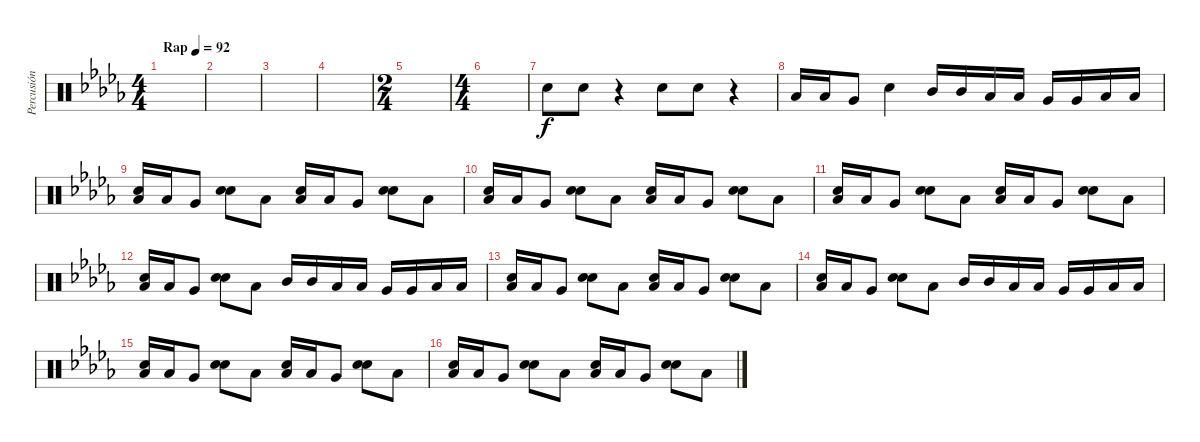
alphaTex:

\track ("Percusión" "Percusión") {instrument percussion}
\staff {score}
\articulation defaults
\ts (4 4)
\tempo (92 "Rap")
\clef neutral
\ks db
|
|
|
|
\ts (2 4)
|
\ts (4 4)
|
"Electric Snare (hit)".8 "Electric Snare (hit)".8 r.4 "Electric Snare (hit)".8 "Electric Snare (hit)".8 r.4 |
"Low Tom (hit)".16 "Low Tom (hit)".16 "Very Low Tom (hit)".8 "Electric Snare (hit)".4 "Mid Tom (hit)".16 "Mid Tom (hit)".16 "Low Tom (hit)".16 "Low Tom (hit)".16 "Very Low Tom (hit)".16 "Very Low Tom (hit)".16 "Low Floor Tom (hit)".16 "Low Floor Tom (hit)".16 |
("Low Tom (hit)" "Snare (hit) 2").16 "Low Tom (hit)".16 "Very Low Tom (hit)".8 ("Electric Snare (hit)" "Snare (hit) 2").8 "Low Tom (hit)".8 ("Low Tom (hit)" "Snare (hit) 2").16 "Low Tom (hit)".16 "Very Low Tom (hit)".8 ("Electric Snare (hit)" "Snare (hit) 2").8 "Low Tom (hit)".8 |
("Low Tom (hit)" "Snare (hit) 2").16 "Low Tom (hit)".16 "Very Low Tom (hit)".8 ("Electric Snare (hit)" "Snare (hit) 2").8 "Low Tom (hit)".8 ("Low Tom (hit)" "Snare (hit) 2").16 "Low Tom (hit)".16 "Very Low Tom (hit)".8 ("Electric Snare (hit)" "Snare (hit) 2").8 "Low Tom (hit)".8 |
("Low Tom (hit)" "Snare (hit) 2").16 "Low Tom (hit)".16 "Very Low Tom (hit)".8 ("Electric Snare (hit)" "Snare (hit) 2").8 "Low Tom (hit)".8 ("Low Tom (hit)" "Snare (hit) 2").16 "Low Tom (hit)".16 "Very Low Tom (hit)".8 ("Electric Snare (hit)" "Snare (hit) 2").8 "Low Tom (hit)".8 |
("Low Tom (hit)" "Snare (hit) 2").16 "Low Tom (hit)".16 "Very Low Tom (hit)".8 ("Electric Snare (hit)" "Snare (hit) 2").8 "Low Tom (hit)".8 "Mid Tom (hit)".16 "Mid Tom (hit)".16 "Low Tom (hit)".16 "Low Tom (hit)".16 "Very Low Tom (hit)".16 "Very Low Tom (hit)".16 "Low Floor Tom (hit)".16 "Low Floor Tom (hit)".16 |
("Low Tom (hit)" "Snare (hit) 2").16 "Low Tom (hit)".16 "Very Low Tom (hit)".8 ("Electric Snare (hit)" "Snare (hit) 2").8 "Low Tom (hit)".8 ("Low Tom (hit)" "Snare (hit) 2").16 "Low Tom (hit)".16 "Very Low Tom (hit)".8 ("Electric Snare (hit)" "Snare (hit) 2").8 "Low Tom (hit)".8 |
("Low Tom (hit)" "Snare (hit) 2").16 "Low Tom (hit)".16 "Very Low Tom (hit)".8 ("Electric Snare (hit)" "Snare (hit) 2").8 "Low Tom (hit)".8 "Mid Tom (hit)".16 "Mid Tom (hit)".16 "Low Tom (hit)".16 "Low Tom (hit)".16 "Very Low Tom (hit)".16 "Very Low Tom (hit)".16 "Low Floor Tom (hit)".16 "Low Floor Tom (hit)".16 |
("Low Tom (hit)" "Snare (hit) 2").16 "Low Tom (hit)".16 "Very Low Tom (hit)".8 ("Electric Snare (hit)" "Snare (hit) 2").8 "Low Tom (hit)".8 ("Low Tom (hit)" "Snare (hit) 2").16 "Low Tom (hit)".16 "Very Low Tom (hit)".8 ("Electric Snare (hit)" "Snare (hit) 2").8 "Low Tom (hit)".8 |
("Low Tom (hit)" "Snare (hit) 2").16 "Low Tom (hit)".16 "Very Low Tom (hit)".8 ("Electric Snare (hit)" "Snare (hit) 2").8 "Low Tom (hit)".8 ("Low Tom (hit)" "Snare (hit) 2").16 "Low Tom (hit)".16 "Very Low Tom (hit)".8 ("Electric Snare (hit)" "Snare (hit) 2").8 "Low Tom (hit)".8
